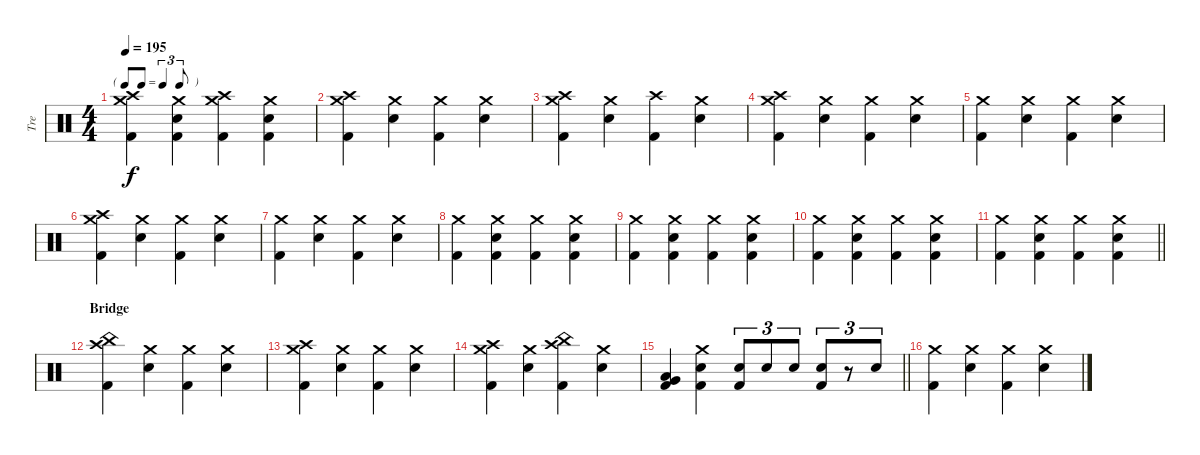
\track ("Tre" "Tre") {instrument percussion}
\staff {score}
\articulation defaults
\ts (4 4)
\tf triplet8th
\tempo 195
\clef neutral
\ks c
("Crash medium (hit)" "Crash high (hit)" "Kick (hit) 2").4{dy f} ("Crash medium (hit)" "Snare (hit) 2" "Kick (hit) 2").4 ("Crash medium (hit)" "Crash high (hit)" "Kick (hit) 2").4 ("Crash medium (hit)" "Snare (hit) 2" "Kick (hit) 2").4 |
("Crash medium (hit)" "Crash high (hit)" "Kick (hit) 2").4 ("Crash medium (hit)" "Snare (hit) 2").4 ("Crash medium (hit)" "Kick (hit) 2").4 ("Crash medium (hit)" "Snare (hit) 2").4 |
("Crash medium (hit)" "Crash high (hit)" "Kick (hit) 2").4 ("Crash medium (hit)" "Snare (hit) 2").4 ("Crash high (hit)" "Kick (hit) 2").4 ("Crash medium (hit)" "Snare (hit) 2").4 |
("Crash medium (hit)" "Crash high (hit)" "Kick (hit) 2").4 ("Crash medium (hit)" "Snare (hit) 2").4 ("Crash medium (hit)" "Kick (hit) 2").4 ("Crash medium (hit)" "Snare (hit) 2").4 |
("Crash medium (hit)" "Kick (hit) 2").4 ("Crash medium (hit)" "Snare (hit) 2").4 ("Crash medium (hit)" "Kick (hit) 2").4 ("Crash medium (hit)" "Snare (hit) 2").4 |
("Crash medium (hit)" "Crash high (hit)" "Kick (hit) 2").4 ("Crash medium (hit)" "Snare (hit) 2").4 ("Crash medium (hit)" "Kick (hit) 2").4 ("Crash medium (hit)" "Snare (hit) 2").4 |
("Crash medium (hit)" "Kick (hit) 2").4 ("Crash medium (hit)" "Snare (hit) 2").4 ("Crash medium (hit)" "Kick (hit) 2").4 ("Crash medium (hit)" "Snare (hit) 2").4 |
("Crash medium (hit)" "Kick (hit) 2").4 ("Crash medium (hit)" "Snare (hit) 2" "Kick (hit) 2").4 ("Crash medium (hit)" "Kick (hit) 2").4 ("Crash medium (hit)" "Snare (hit) 2" "Kick (hit) 2").4 |
("Crash medium (hit)" "Kick (hit) 2").4 ("Crash medium (hit)" "Snare (hit) 2" "Kick (hit) 2").4 ("Crash medium (hit)" "Kick (hit) 2").4 ("Crash medium (hit)" "Snare (hit) 2" "Kick (hit) 2").4 |
("Crash medium (hit)" "Kick (hit) 2").4 ("Crash medium (hit)" "Snare (hit) 2" "Kick (hit) 2").4 ("Crash medium (hit)" "Kick (hit) 2").4 ("Crash medium (hit)" "Snare (hit) 2" "Kick (hit) 2").4 |
\barLineRight lightlight
("Crash medium (hit)" "Kick (hit) 2").4 ("Crash medium (hit)" "Snare (hit) 2" "Kick (hit) 2").4 ("Crash medium (hit)" "Kick (hit) 2").4 ("Crash medium (hit)" "Snare (hit) 2" "Kick (hit) 2").4 |
\section ("" "Bridge")
("China (hit)" "Crash high (hit)" "Kick (hit) 2").4 ("Crash medium (hit)" "Snare (hit) 2").4 ("Crash medium (hit)" "Kick (hit) 2").4 ("Crash medium (hit)" "Snare (hit) 2").4 |
("Crash medium (hit)" "Crash high (hit)" "Kick (hit) 2").4 ("Crash medium (hit)" "Snare (hit) 2").4 ("Crash medium (hit)" "Kick (hit) 2").4 ("Crash medium (hit)" "Snare (hit) 2").4 |
("Crash medium (hit)" "Crash high (hit)" "Kick (hit) 2").4 ("Crash medium (hit)" "Snare (hit) 2").4 ("Crash high (hit)" "China (hit)" "Kick (hit) 2").4 ("Crash medium (hit)" "Snare (hit) 2").4 |
\barLineRight lightlight
("Very Low Tom (hit)" "Low Floor Tom (hit)" "Kick (hit) 2").4 ("Crash medium (hit)" "Snare (hit) 2" "Kick (hit) 2").4 ("Snare (hit) 2" "Kick (hit) 2").8{tu (3 2)} "Snare (hit) 2".8{tu (3 2)} "Snare (hit) 2".8{tu (3 2)} ("Snare (hit) 2" "Kick (hit) 2").8{tu (3 2)} r.8{tu (3 2)} "Snare (hit) 2".8{tu (3 2)} |
("Crash medium (hit)" "Kick (hit) 2").4 ("Crash medium (hit)" "Snare (hit) 2").4 ("Crash medium (hit)" "Kick (hit) 2").4 ("Crash medium (hit)" "Snare (hit) 2").4
